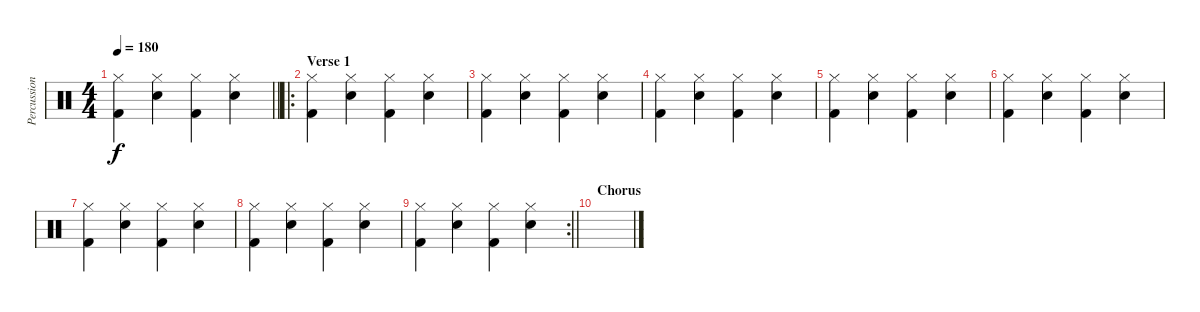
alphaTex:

\track ("Percussion" "Percussion") {instrument percussion}
\staff {score}
\articulation defaults
\ts (4 4)
\tempo 180
\clef neutral
\barLineRight lightlight
\ks c
("Hi-Hat (closed)" "Kick (hit) 2").4{dy f} ("Hi-Hat (closed)" "Electric Snare (hit)").4 ("Hi-Hat (closed)" "Kick (hit) 2").4 ("Hi-Hat (closed)" "Electric Snare (hit)").4 |
\ro
\section ("" "Verse 1")
("Hi-Hat (closed)" "Kick (hit) 2").4 ("Hi-Hat (closed)" "Electric Snare (hit)").4 ("Hi-Hat (closed)" "Kick (hit) 2").4 ("Hi-Hat (closed)" "Electric Snare (hit)").4 |
("Hi-Hat (closed)" "Kick (hit) 2").4 ("Hi-Hat (closed)" "Electric Snare (hit)").4 ("Hi-Hat (closed)" "Kick (hit) 2").4 ("Hi-Hat (closed)" "Electric Snare (hit)").4 |
("Hi-Hat (closed)" "Kick (hit) 2").4 ("Hi-Hat (closed)" "Electric Snare (hit)").4 ("Hi-Hat (closed)" "Kick (hit) 2").4 ("Hi-Hat (closed)" "Electric Snare (hit)").4 |
("Hi-Hat (closed)" "Kick (hit) 2").4 ("Hi-Hat (closed)" "Electric Snare (hit)").4 ("Hi-Hat (closed)" "Kick (hit) 2").4 ("Hi-Hat (closed)" "Electric Snare (hit)").4 |
("Hi-Hat (closed)" "Kick (hit) 2").4 ("Hi-Hat (closed)" "Electric Snare (hit)").4 ("Hi-Hat (closed)" "Kick (hit) 2").4 ("Hi-Hat (closed)" "Electric Snare (hit)").4 |
("Hi-Hat (closed)" "Kick (hit) 2").4 ("Hi-Hat (closed)" "Electric Snare (hit)").4 ("Hi-Hat (closed)" "Kick (hit) 2").4 ("Hi-Hat (closed)" "Electric Snare (hit)").4 |
("Hi-Hat (closed)" "Kick (hit) 2").4 ("Hi-Hat (closed)" "Electric Snare (hit)").4 ("Hi-Hat (closed)" "Kick (hit) 2").4 ("Hi-Hat (closed)" "Electric Snare (hit)").4 |
\rc 2
\barLineRight lightlight
("Hi-Hat (closed)" "Kick (hit) 2").4 ("Hi-Hat (closed)" "Electric Snare (hit)").4 ("Hi-Hat (closed)" "Kick (hit) 2").4 ("Hi-Hat (closed)" "Electric Snare (hit)").4 |
\section ("" "Chorus")
